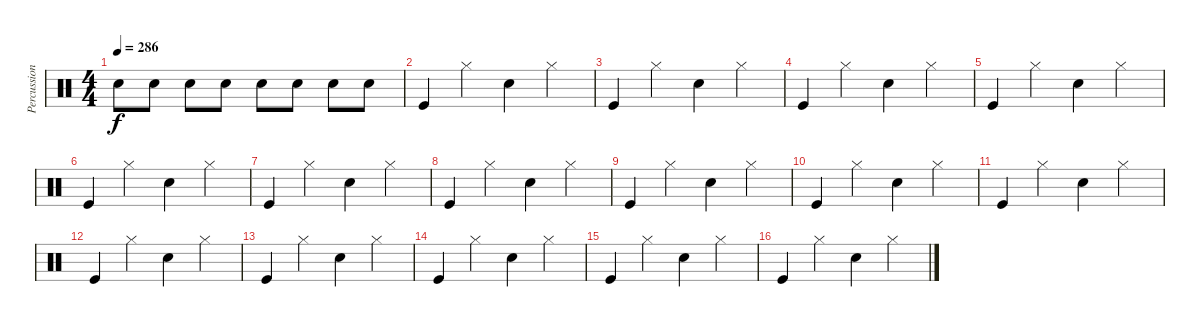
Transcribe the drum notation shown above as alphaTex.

\track ("Percussions" "Percussion") {instrument percussion}
\staff {score}
\articulation defaults
\ts (4 4)
\tempo 286
\clef neutral
\ks c "Electric Snare (hit)".8{dy f} "Electric Snare (hit)".8 "Electric Snare (hit)".8 "Electric Snare (hit)".8 "Electric Snare (hit)".8 "Electric Snare (hit)".8 "Electric Snare (hit)".8 "Electric Snare (hit)".8
|
"Kick (hit)".4 "Hi-Hat (closed)".4 "Electric Snare (hit)".4 "Hi-Hat (closed)".4 |
"Kick (hit)".4 "Hi-Hat (closed)".4 "Electric Snare (hit)".4 "Hi-Hat (closed)".4 |
"Kick (hit)".4 "Hi-Hat (closed)".4 "Electric Snare (hit)".4 "Hi-Hat (closed)".4 |
"Kick (hit)".4 "Hi-Hat (closed)".4 "Electric Snare (hit)".4 "Hi-Hat (closed)".4 |
"Kick (hit)".4 "Hi-Hat (closed)".4 "Electric Snare (hit)".4 "Hi-Hat (closed)".4 |
"Kick (hit)".4 "Hi-Hat (closed)".4 "Electric Snare (hit)".4 "Hi-Hat (closed)".4 |
"Kick (hit)".4 "Hi-Hat (closed)".4 "Electric Snare (hit)".4 "Hi-Hat (closed)".4 |
"Kick (hit)".4 "Hi-Hat (closed)".4 "Electric Snare (hit)".4 "Hi-Hat (closed)".4 |
"Kick (hit)".4 "Hi-Hat (closed)".4 "Electric Snare (hit)".4 "Hi-Hat (closed)".4 |
"Kick (hit)".4 "Hi-Hat (closed)".4 "Electric Snare (hit)".4 "Hi-Hat (closed)".4 |
"Kick (hit)".4 "Hi-Hat (closed)".4 "Electric Snare (hit)".4 "Hi-Hat (closed)".4 |
"Kick (hit)".4 "Hi-Hat (closed)".4 "Electric Snare (hit)".4 "Hi-Hat (closed)".4 |
"Kick (hit)".4 "Hi-Hat (closed)".4 "Electric Snare (hit)".4 "Hi-Hat (closed)".4 |
"Kick (hit)".4 "Hi-Hat (closed)".4 "Electric Snare (hit)".4 "Hi-Hat (closed)".4 |
"Kick (hit)".4 "Hi-Hat (closed)".4 "Electric Snare (hit)".4 "Hi-Hat (closed)".4
